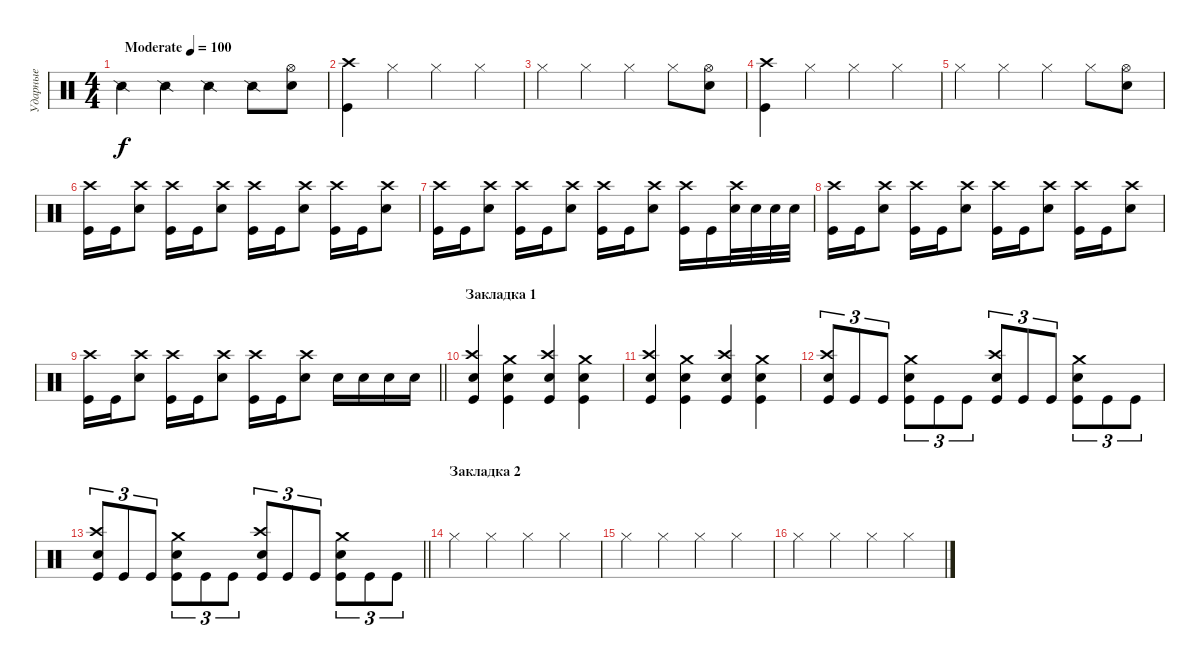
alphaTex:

\track ("Ударные" "Ударные") {instrument percussion}
\staff {score}
\articulation defaults
\ts (4 4)
\tempo (100 "Moderate")
\clef neutral
\ks c "Snare (side stick) 2".4{dy f} "Snare (side stick) 2".4 "Snare (side stick) 2".4 "Snare (side stick) 2".8
("Snare (hit) 2" "Hi-Hat (open)").8 |
("Crash high (hit)" "Kick (hit)").4 "Hi-Hat (closed)".4 "Hi-Hat (closed)".4 "Hi-Hat (closed)".4 |
"Hi-Hat (closed)".4 "Hi-Hat (closed)".4 "Hi-Hat (closed)".4 "Hi-Hat (closed)".8 ("Hi-Hat (open)" "Snare (hit) 2").8 |
("Crash high (hit)" "Kick (hit)").4 "Hi-Hat (closed)".4 "Hi-Hat (closed)".4 "Hi-Hat (closed)".4 |
"Hi-Hat (closed)".4 "Hi-Hat (closed)".4 "Hi-Hat (closed)".4 "Hi-Hat (closed)".8 ("Hi-Hat (open)" "Snare (hit) 2").8 |
("Crash high (hit)" "Kick (hit)").16 "Kick (hit)".16 ("Snare (hit) 2" "Crash high (hit)").8 ("Kick (hit)" "Crash high (hit)").16 "Kick (hit)".16 ("Crash high (hit)" "Snare (hit) 2").8 ("Kick (hit)" "Crash high (hit)").16 "Kick (hit)".16 ("Crash high (hit)" "Snare (hit) 2").8 ("Kick (hit)" "Crash high (hit)").16 "Kick (hit)".16 ("Crash high (hit)" "Snare (hit) 2").8 |
("Kick (hit)" "Crash high (hit)").16 "Kick (hit)".16 ("Crash high (hit)" "Snare (hit) 2").8 ("Kick (hit)" "Crash high (hit)").16 "Kick (hit)".16 ("Crash high (hit)" "Snare (hit) 2").8 ("Kick (hit)" "Crash high (hit)").16 "Kick (hit)".16 ("Crash high (hit)" "Snare (hit) 2").8 ("Kick (hit)" "Crash high (hit)").16 "Kick (hit)".16 ("Snare (hit) 2" "Crash high (hit)").32 "Snare (hit) 2".32 "Snare (hit) 2".32 "Snare (hit) 2".32 |
("Kick (hit)" "Crash high (hit)").16 "Kick (hit)".16 ("Crash high (hit)" "Snare (hit) 2").8 ("Kick (hit)" "Crash high (hit)").16 "Kick (hit)".16 ("Crash high (hit)" "Snare (hit) 2").8 ("Kick (hit)" "Crash high (hit)").16 "Kick (hit)".16 ("Crash high (hit)" "Snare (hit) 2").8 ("Kick (hit)" "Crash high (hit)").16 "Kick (hit)".16 ("Crash high (hit)" "Snare (hit) 2").8 |
\barLineRight lightlight
("Kick (hit)" "Crash high (hit)").16 "Kick (hit)".16 ("Crash high (hit)" "Snare (hit) 2").8 ("Kick (hit)" "Crash high (hit)").16 "Kick (hit)".16 ("Crash high (hit)" "Snare (hit) 2").8 ("Kick (hit)" "Crash high (hit)").16 "Kick (hit)".16 ("Crash high (hit)" "Snare (hit) 2").8 "Snare (hit) 2".16 "Snare (hit) 2".16 "Snare (hit) 2".16 "Snare (hit) 2".16 |
\section ("" "Закладка 1")
("Crash high (hit)" "Snare (hit) 2" "Kick (hit)").4 ("Crash medium (hit)" "Snare (hit) 2" "Kick (hit)").4 ("Crash high (hit)" "Snare (hit) 2" "Kick (hit)").4 ("Crash medium (hit)" "Snare (hit) 2" "Kick (hit)").4 |
("Crash high (hit)" "Snare (hit) 2" "Kick (hit)").4 ("Crash medium (hit)" "Snare (hit) 2" "Kick (hit)").4 ("Crash high (hit)" "Snare (hit) 2" "Kick (hit)").4 ("Crash medium (hit)" "Snare (hit) 2" "Kick (hit)").4 |
("Kick (hit)" "Crash high (hit)" "Snare (hit) 2").8{tu (3 2)} "Kick (hit)".8{tu (3 2)} "Kick (hit)".8{tu (3 2)} ("Kick (hit)" "Crash medium (hit)" "Snare (hit) 2").8{tu (3 2)} "Kick (hit)".8{tu (3 2)} "Kick (hit)".8{tu (3 2)} ("Kick (hit)" "Crash high (hit)" "Snare (hit) 2").8{tu (3 2)} "Kick (hit)".8{tu (3 2)} "Kick (hit)".8{tu (3 2)} ("Kick (hit)" "Crash medium (hit)" "Snare (hit) 2").8{tu (3 2)} "Kick (hit)".8{tu (3 2)} "Kick (hit)".8{tu (3 2)} |
\barLineRight lightlight
("Kick (hit)" "Crash high (hit)" "Snare (hit) 2").8{tu (3 2)} "Kick (hit)".8{tu (3 2)} "Kick (hit)".8{tu (3 2)} ("Kick (hit)" "Crash medium (hit)" "Snare (hit) 2").8{tu (3 2)} "Kick (hit)".8{tu (3 2)} "Kick (hit)".8{tu (3 2)} ("Kick (hit)" "Crash high (hit)" "Snare (hit) 2").8{tu (3 2)} "Kick (hit)".8{tu (3 2)} "Kick (hit)".8{tu (3 2)} ("Kick (hit)" "Crash medium (hit)" "Snare (hit) 2").8{tu (3 2)} "Kick (hit)".8{tu (3 2)} "Kick (hit)".8{tu (3 2)} |
\section ("" "Закладка 2")
"Hi-Hat (closed)".4 "Hi-Hat (closed)".4 "Hi-Hat (closed)".4 "Hi-Hat (closed)".4 |
"Hi-Hat (closed)".4 "Hi-Hat (closed)".4 "Hi-Hat (closed)".4 "Hi-Hat (closed)".4 |
"Hi-Hat (closed)".4 "Hi-Hat (closed)".4 "Hi-Hat (closed)".4 "Hi-Hat (closed)".4
